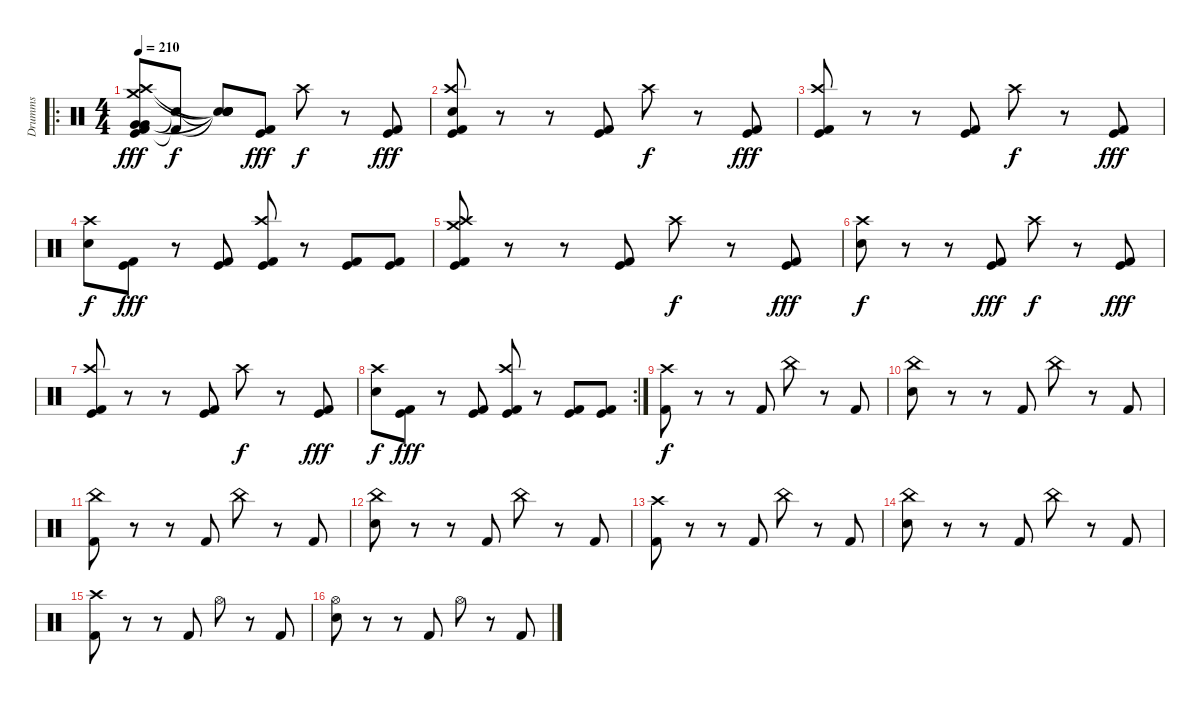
\track ("Drumms" "Drumms") {instrument percussion}
\staff {score}
\articulation defaults
\ro
\ts (4 4)
\tempo 210
\clef neutral
\ks c
("Kick (hit)" "Very Low Tom (hit)" "Crash medium (hit)" "Crash high (hit)" "Very Low Tom (hit)" "Kick (hit) 2").8{dy fff} ("Kick (hit) 2"{t} "Snare (hit)"{t}).8{dy f} ("Snare (hit)"{t} "Snare (hit)"{t} "Snare (hit)"{t} "Snare (hit)"{t} "Snare (hit)"{t}).8 ("Kick (hit)" "Kick (hit) 2").8{dy fff} "Crash high (hit)".8{dy f} r.8 ("Kick (hit)" "Kick (hit) 2").8{dy fff} |
("Kick (hit) 2" "Crash high (hit)" "Kick (hit)" "Snare (hit) 2").8 r.8 r.8 ("Kick (hit)" "Kick (hit) 2").8 "Crash high (hit)".8{dy f} r.8 ("Kick (hit)" "Kick (hit) 2").8{dy fff} |
("Crash high (hit)" "Kick (hit)" "Kick (hit) 2").8 r.8 r.8 ("Kick (hit)" "Kick (hit) 2").8 "Crash high (hit)".8{dy f} r.8 ("Kick (hit) 2" "Kick (hit)").8{dy fff} |
("Crash high (hit)" "Snare (hit) 2").8{dy f} ("Kick (hit)" "Kick (hit) 2").8{dy fff} r.8 ("Kick (hit)" "Kick (hit) 2").8 ("Crash high (hit)" "Kick (hit)" "Kick (hit) 2").8 r.8 ("Kick (hit)" "Kick (hit) 2").8 ("Kick (hit)" "Kick (hit) 2").8 |
("Crash medium (hit)" "Crash high (hit)" "Kick (hit)" "Kick (hit) 2").8 r.8 r.8 ("Kick (hit)" "Kick (hit) 2").8 "Crash high (hit)".8{dy f} r.8 ("Kick (hit)" "Kick (hit) 2").8{dy fff} |
("Crash high (hit)" "Snare (hit) 2").8{dy f} r.8 r.8 ("Kick (hit)" "Kick (hit) 2").8{dy fff} "Crash high (hit)".8{dy f} r.8 ("Kick (hit)" "Kick (hit) 2").8{dy fff} |
("Crash high (hit)" "Kick (hit)" "Kick (hit) 2").8 r.8 r.8 ("Kick (hit)" "Kick (hit) 2").8 "Crash high (hit)".8{dy f} r.8 ("Kick (hit)" "Kick (hit) 2").8{dy fff} |
\rc 2
("Crash high (hit)" "Snare (hit) 2").8{dy f} ("Kick (hit)" "Kick (hit) 2").8{dy fff} r.8 ("Kick (hit)" "Kick (hit) 2").8 ("Crash high (hit)" "Kick (hit)" "Kick (hit) 2").8 r.8 ("Kick (hit)" "Kick (hit) 2").8 ("Kick (hit)" "Kick (hit) 2").8 |
("Crash high (hit)" "Kick (hit) 2").8{dy f} r.8 r.8 "Kick (hit) 2".8 "China (hit)".8 r.8 "Kick (hit) 2".8 |
("China (hit)" "Snare (hit) 2").8 r.8 r.8 "Kick (hit) 2".8 "China (hit)".8 r.8 "Kick (hit) 2".8 |
("China (hit)" "Kick (hit) 2").8 r.8 r.8 "Kick (hit) 2".8 "China (hit)".8 r.8 "Kick (hit) 2".8 |
("China (hit)" "Snare (hit) 2").8 r.8 r.8 "Kick (hit) 2".8 "China (hit)".8 r.8 "Kick (hit) 2".8 |
("Crash high (hit)" "Kick (hit) 2").8 r.8 r.8 "Kick (hit) 2".8 "China (hit)".8 r.8 "Kick (hit) 2".8 |
("China (hit)" "Snare (hit) 2").8 r.8 r.8 "Kick (hit) 2".8 "China (hit)".8 r.8 "Kick (hit) 2".8 |
("Crash high (hit)" "Kick (hit) 2").8 r.8 r.8 "Kick (hit) 2".8 "Hi-Hat (open)".8 r.8 "Kick (hit) 2".8 |
("Hi-Hat (open)" "Snare (hit) 2").8 r.8 r.8 "Kick (hit) 2".8 "Hi-Hat (open)".8 r.8 "Kick (hit) 2".8
